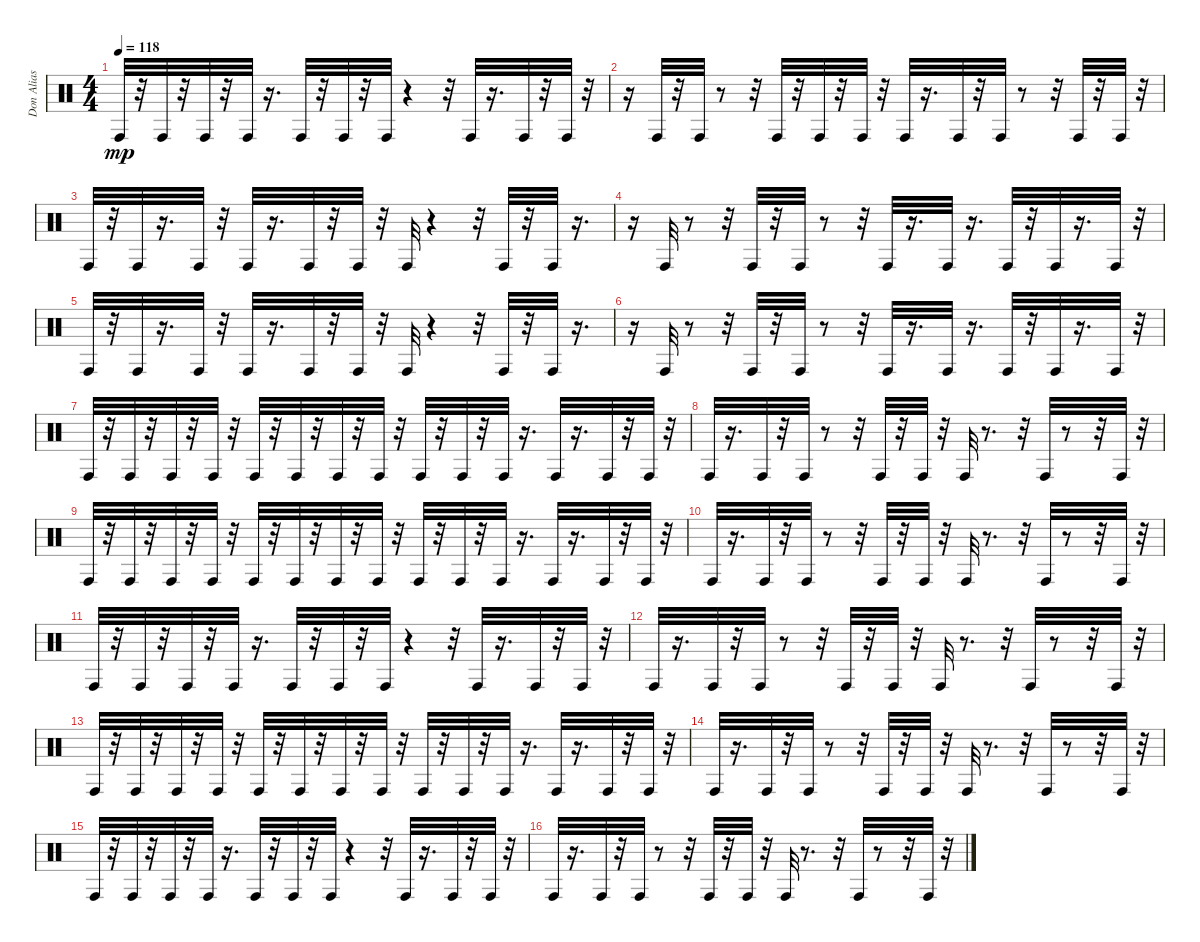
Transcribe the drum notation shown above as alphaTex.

\track ("Don Alias" "Don Alias") {instrument percussion}
\staff {score}
\articulation defaults
\ts (4 4)
\tempo 118
\clef neutral
\ks c "Conga high (hit)".32{dy mp}
r.32 "Conga high (hit)".32 r.32 "Conga high (hit)".32 r.32 "Conga high (hit)".32 r.16{d} "Conga high (hit)".32 r.32 "Conga high (hit)".32 r.32 "Conga high (hit)".32 r.4 r.32 "Conga high (hit)".32 r.16{d} "Conga high (hit)".32 r.32 "Conga high (hit)".32 r.32 |
r.16 "Conga high (hit)".32 r.32 "Conga high (hit)".32 r.8 r.32 "Conga high (hit)".32 r.32 "Conga high (hit)".32 r.32 "Conga high (hit)".32 r.32 "Conga high (hit)".32 r.16{d} "Conga high (hit)".32 r.32 "Conga high (hit)".32 r.8 r.32 "Conga high (hit)".32 r.32 "Conga high (hit)".32 r.32 |
"Conga high (hit)".32 r.32 "Conga high (hit)".32 r.16{d} "Conga high (hit)".32 r.32 "Conga high (hit)".32 r.16{d} "Conga high (hit)".32 r.32 "Conga high (hit)".32 r.32 "Conga high (hit)".32 r.4 r.32 "Conga high (hit)".32 r.32 "Conga high (hit)".32 r.16{d} |
r.16 "Conga high (hit)".32 r.8 r.32 "Conga high (hit)".32 r.32 "Conga high (hit)".32 r.8 r.32 "Conga high (hit)".32 r.16{d} "Conga high (hit)".32 r.16{d} "Conga high (hit)".32 r.32 "Conga high (hit)".32 r.16{d} "Conga high (hit)".32 r.32 |
"Conga high (hit)".32 r.32 "Conga high (hit)".32 r.16{d} "Conga high (hit)".32 r.32 "Conga high (hit)".32 r.16{d} "Conga high (hit)".32 r.32 "Conga high (hit)".32 r.32 "Conga high (hit)".32 r.4 r.32 "Conga high (hit)".32 r.32 "Conga high (hit)".32 r.16{d} |
r.16 "Conga high (hit)".32 r.8 r.32 "Conga high (hit)".32 r.32 "Conga high (hit)".32 r.8 r.32 "Conga high (hit)".32 r.16{d} "Conga high (hit)".32 r.16{d} "Conga high (hit)".32 r.32 "Conga high (hit)".32 r.16{d} "Conga high (hit)".32 r.32 |
"Conga high (hit)".32 r.32 "Conga high (hit)".32 r.32 "Conga high (hit)".32 r.32 "Conga high (hit)".32 r.32 "Conga high (hit)".32 r.32 "Conga high (hit)".32 r.32 "Conga high (hit)".32 r.32 "Conga high (hit)".32 r.32 "Conga high (hit)".32 r.32 "Conga high (hit)".32 r.32 "Conga high (hit)".32 r.16{d} "Conga high (hit)".32 r.16{d} "Conga high (hit)".32 r.32 "Conga high (hit)".32 r.32 |
"Conga high (hit)".32 r.16{d} "Conga high (hit)".32 r.32 "Conga high (hit)".32 r.8 r.32 "Conga high (hit)".32 r.32 "Conga high (hit)".32 r.32 "Conga high (hit)".32 r.8{d} r.32 "Conga high (hit)".32 r.8 r.32 "Conga high (hit)".32 r.32 |
"Conga high (hit)".32 r.32 "Conga high (hit)".32 r.32 "Conga high (hit)".32 r.32 "Conga high (hit)".32 r.32 "Conga high (hit)".32 r.32 "Conga high (hit)".32 r.32 "Conga high (hit)".32 r.32 "Conga high (hit)".32 r.32 "Conga high (hit)".32 r.32 "Conga high (hit)".32 r.32 "Conga high (hit)".32 r.16{d} "Conga high (hit)".32 r.16{d} "Conga high (hit)".32 r.32 "Conga high (hit)".32 r.32 |
"Conga high (hit)".32 r.16{d} "Conga high (hit)".32 r.32 "Conga high (hit)".32 r.8 r.32 "Conga high (hit)".32 r.32 "Conga high (hit)".32 r.32 "Conga high (hit)".32 r.8{d} r.32 "Conga high (hit)".32 r.8 r.32 "Conga high (hit)".32 r.32 |
"Conga high (hit)".32 r.32 "Conga high (hit)".32 r.32 "Conga high (hit)".32 r.32 "Conga high (hit)".32 r.16{d} "Conga high (hit)".32 r.32 "Conga high (hit)".32 r.32 "Conga high (hit)".32 r.4 r.32 "Conga high (hit)".32 r.16{d} "Conga high (hit)".32 r.32 "Conga high (hit)".32 r.32 |
"Conga high (hit)".32 r.16{d} "Conga high (hit)".32 r.32 "Conga high (hit)".32 r.8 r.32 "Conga high (hit)".32 r.32 "Conga high (hit)".32 r.32 "Conga high (hit)".32 r.8{d} r.32 "Conga high (hit)".32 r.8 r.32 "Conga high (hit)".32 r.32 |
"Conga high (hit)".32 r.32 "Conga high (hit)".32 r.32 "Conga high (hit)".32 r.32 "Conga high (hit)".32 r.32 "Conga high (hit)".32 r.32 "Conga high (hit)".32 r.32 "Conga high (hit)".32 r.32 "Conga high (hit)".32 r.32 "Conga high (hit)".32 r.32 "Conga high (hit)".32 r.32 "Conga high (hit)".32 r.16{d} "Conga high (hit)".32 r.16{d} "Conga high (hit)".32 r.32 "Conga high (hit)".32 r.32 |
"Conga high (hit)".32 r.16{d} "Conga high (hit)".32 r.32 "Conga high (hit)".32 r.8 r.32 "Conga high (hit)".32 r.32 "Conga high (hit)".32 r.32 "Conga high (hit)".32 r.8{d} r.32 "Conga high (hit)".32 r.8 r.32 "Conga high (hit)".32 r.32 |
"Conga high (hit)".32 r.32 "Conga high (hit)".32 r.32 "Conga high (hit)".32 r.32 "Conga high (hit)".32 r.16{d} "Conga high (hit)".32 r.32 "Conga high (hit)".32 r.32 "Conga high (hit)".32 r.4 r.32 "Conga high (hit)".32 r.16{d} "Conga high (hit)".32 r.32 "Conga high (hit)".32 r.32 |
"Conga high (hit)".32 r.16{d} "Conga high (hit)".32 r.32 "Conga high (hit)".32 r.8 r.32 "Conga high (hit)".32 r.32 "Conga high (hit)".32 r.32 "Conga high (hit)".32 r.8{d} r.32 "Conga high (hit)".32 r.8 r.32 "Conga high (hit)".32 r.32
